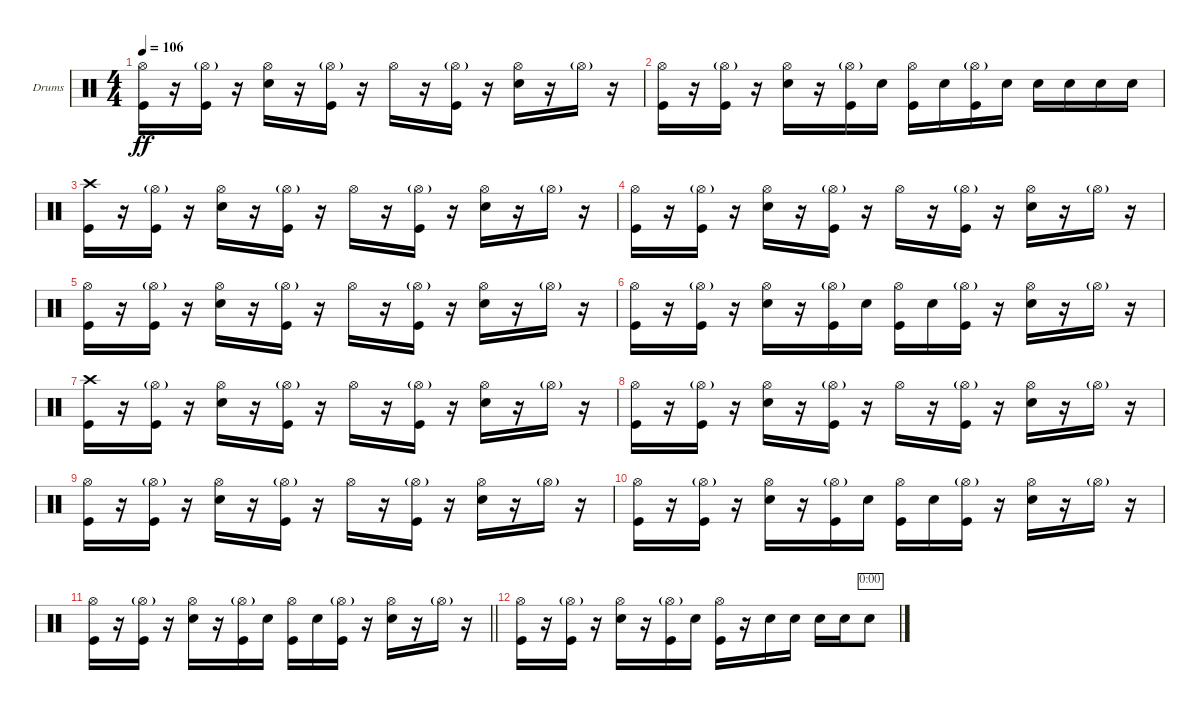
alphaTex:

\bracketExtendMode groupsimilarinstruments
\firstSystemTrackNameOrientation horizontal
\otherSystemsTrackNameOrientation horizontal
\track ("Udarnyye | A. Storozhuk" "Drums") {instrument percussion}
\staff {score}
\articulation defaults
\ts (4 4)
\tempo 106
\clef neutral
\ks c
("Hi-Hat (open)" "Kick (hit)").16{dy ff} r.16 ("Hi-Hat (open)"{g} "Kick (hit)").16 r.16 ("Hi-Hat (open)" "Snare (hit) 2").16 r.16 ("Hi-Hat (open)"{g} "Kick (hit)").16 r.16 "Hi-Hat (open)".16 r.16 ("Hi-Hat (open)"{g} "Kick (hit)").16 r.16 ("Hi-Hat (open)" "Snare (hit) 2").16 r.16 "Hi-Hat (open)"{g}.16 r.16 |
("Hi-Hat (open)" "Kick (hit)").16 r.16 ("Hi-Hat (open)"{g} "Kick (hit)").16 r.16 ("Hi-Hat (open)" "Snare (hit) 2").16 r.16 ("Hi-Hat (open)"{g} "Kick (hit)").16 "Snare (hit) 2".16 ("Hi-Hat (open)" "Kick (hit)").16 "Snare (hit) 2".16 ("Hi-Hat (open)"{g} "Kick (hit)").16 "Snare (hit) 2".16 "Snare (hit) 2".16 "Snare (hit) 2".16 "Snare (hit) 2".16 "Snare (hit) 2".16 |
("Crash high (hit)" "Kick (hit)").16 r.16 ("Hi-Hat (open)"{g} "Kick (hit)").16 r.16 ("Hi-Hat (open)" "Snare (hit) 2").16 r.16 ("Hi-Hat (open)"{g} "Kick (hit)").16 r.16 "Hi-Hat (open)".16 r.16 ("Hi-Hat (open)"{g} "Kick (hit)").16 r.16 ("Hi-Hat (open)" "Snare (hit) 2").16 r.16 "Hi-Hat (open)"{g}.16 r.16 |
("Hi-Hat (open)" "Kick (hit)").16 r.16 ("Hi-Hat (open)"{g} "Kick (hit)").16 r.16 ("Hi-Hat (open)" "Snare (hit) 2").16 r.16 ("Hi-Hat (open)"{g} "Kick (hit)").16 r.16 "Hi-Hat (open)".16 r.16 ("Hi-Hat (open)"{g} "Kick (hit)").16 r.16 ("Hi-Hat (open)" "Snare (hit) 2").16 r.16 "Hi-Hat (open)"{g}.16 r.16 |
("Hi-Hat (open)" "Kick (hit)").16 r.16 ("Hi-Hat (open)"{g} "Kick (hit)").16 r.16 ("Hi-Hat (open)" "Snare (hit) 2").16 r.16 ("Hi-Hat (open)"{g} "Kick (hit)").16 r.16 "Hi-Hat (open)".16 r.16 ("Hi-Hat (open)"{g} "Kick (hit)").16 r.16 ("Hi-Hat (open)" "Snare (hit) 2").16 r.16 "Hi-Hat (open)"{g}.16 r.16 |
("Hi-Hat (open)" "Kick (hit)").16 r.16 ("Hi-Hat (open)"{g} "Kick (hit)").16 r.16 ("Hi-Hat (open)" "Snare (hit) 2").16 r.16 ("Hi-Hat (open)"{g} "Kick (hit)").16 "Snare (hit) 2".16 ("Hi-Hat (open)" "Kick (hit)").16 "Snare (hit) 2".16 ("Hi-Hat (open)"{g} "Kick (hit)").16 r.16 ("Hi-Hat (open)" "Snare (hit) 2").16 r.16 "Hi-Hat (open)"{g}.16 r.16 |
("Crash high (hit)" "Kick (hit)").16 r.16 ("Hi-Hat (open)"{g} "Kick (hit)").16 r.16 ("Hi-Hat (open)" "Snare (hit) 2").16 r.16 ("Hi-Hat (open)"{g} "Kick (hit)").16 r.16 "Hi-Hat (open)".16 r.16 ("Hi-Hat (open)"{g} "Kick (hit)").16 r.16 ("Hi-Hat (open)" "Snare (hit) 2").16 r.16 "Hi-Hat (open)"{g}.16 r.16 |
("Hi-Hat (open)" "Kick (hit)").16 r.16 ("Hi-Hat (open)"{g} "Kick (hit)").16 r.16 ("Hi-Hat (open)" "Snare (hit) 2").16 r.16 ("Hi-Hat (open)"{g} "Kick (hit)").16 r.16 "Hi-Hat (open)".16 r.16 ("Hi-Hat (open)"{g} "Kick (hit)").16 r.16 ("Hi-Hat (open)" "Snare (hit) 2").16 r.16 "Hi-Hat (open)"{g}.16 r.16 |
("Hi-Hat (open)" "Kick (hit)").16 r.16 ("Hi-Hat (open)"{g} "Kick (hit)").16 r.16 ("Hi-Hat (open)" "Snare (hit) 2").16 r.16 ("Hi-Hat (open)"{g} "Kick (hit)").16 r.16 "Hi-Hat (open)".16 r.16 ("Hi-Hat (open)"{g} "Kick (hit)").16 r.16 ("Hi-Hat (open)" "Snare (hit) 2").16 r.16 "Hi-Hat (open)"{g}.16 r.16 |
("Hi-Hat (open)" "Kick (hit)").16 r.16 ("Hi-Hat (open)"{g} "Kick (hit)").16 r.16 ("Hi-Hat (open)" "Snare (hit) 2").16 r.16 ("Hi-Hat (open)"{g} "Kick (hit)").16 "Snare (hit) 2".16 ("Hi-Hat (open)" "Kick (hit)").16 "Snare (hit) 2".16 ("Hi-Hat (open)"{g} "Kick (hit)").16 r.16 ("Hi-Hat (open)" "Snare (hit) 2").16 r.16 "Hi-Hat (open)"{g}.16 r.16 |
\barLineRight lightlight
("Hi-Hat (open)" "Kick (hit)").16 r.16 ("Hi-Hat (open)"{g} "Kick (hit)").16 r.16 ("Hi-Hat (open)" "Snare (hit) 2").16 r.16 ("Hi-Hat (open)"{g} "Kick (hit)").16 "Snare (hit) 2".16 ("Hi-Hat (open)" "Kick (hit)").16 "Snare (hit) 2".16 ("Hi-Hat (open)"{g} "Kick (hit)").16 r.16 ("Hi-Hat (open)" "Snare (hit) 2").16 r.16 "Hi-Hat (open)"{g}.16 r.16 |
("Hi-Hat (open)" "Kick (hit)").16 r.16 ("Hi-Hat (open)"{g} "Kick (hit)").16 r.16 ("Hi-Hat (open)" "Snare (hit) 2").16 r.16 ("Hi-Hat (open)"{g} "Kick (hit)").16 "Snare (hit) 2".16 ("Hi-Hat (open)" "Kick (hit)").16 r.16 "Snare (hit) 2".16 "Snare (hit) 2".16 "Snare (hit) 2".16 "Snare (hit) 2".16 "Snare (hit) 2".8{timer}
